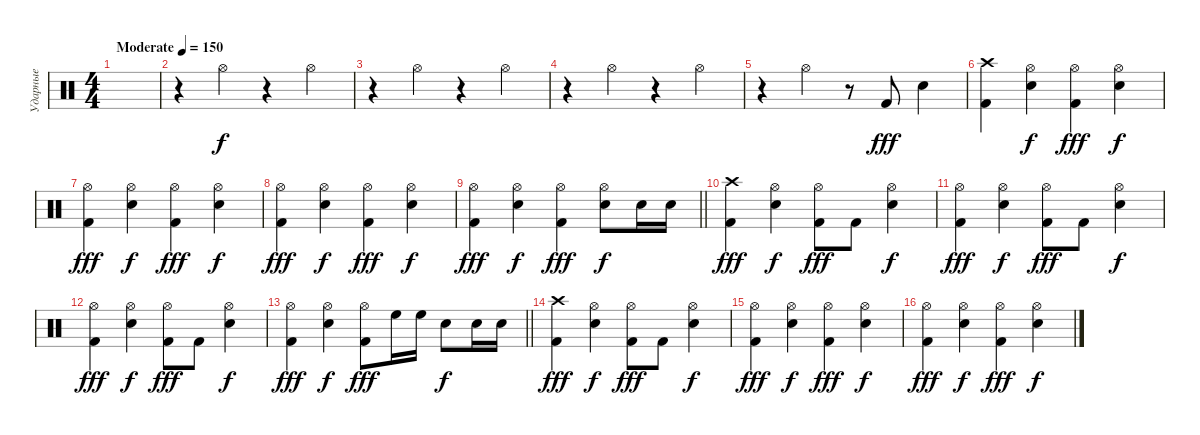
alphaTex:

\track ("Ударные" "Ударные") {instrument percussion}
\staff {score}
\articulation defaults
\ts (4 4)
\tempo (150 "Moderate")
\clef neutral
\ks c
|
r.4 "Hi-Hat (open)".4 r.4 "Hi-Hat (open)".4 |
r.4 "Hi-Hat (open)".4 r.4 "Hi-Hat (open)".4 |
r.4 "Hi-Hat (open)".4 r.4 "Hi-Hat (open)".4 |
r.4 "Hi-Hat (open)".4 r.8 "Kick (hit) 2".8{dy fff} "Snare (hit) 2".4 |
("Kick (hit) 2" "Crash high (hit)").4 ("Snare (hit) 2" "Hi-Hat (open)").4{dy f} ("Kick (hit) 2" "Hi-Hat (open)").4{dy fff} ("Snare (hit) 2" "Hi-Hat (open)").4{dy f} |
("Kick (hit) 2" "Hi-Hat (open)").4{dy fff} ("Snare (hit) 2" "Hi-Hat (open)").4{dy f} ("Kick (hit) 2" "Hi-Hat (open)").4{dy fff} ("Snare (hit) 2" "Hi-Hat (open)").4{dy f} |
("Kick (hit) 2" "Hi-Hat (open)").4{dy fff} ("Snare (hit) 2" "Hi-Hat (open)").4{dy f} ("Kick (hit) 2" "Hi-Hat (open)").4{dy fff} ("Snare (hit) 2" "Hi-Hat (open)").4{dy f} |
\barLineRight lightlight
("Kick (hit) 2" "Hi-Hat (open)").4{dy fff} ("Snare (hit) 2" "Hi-Hat (open)").4{dy f} ("Kick (hit) 2" "Hi-Hat (open)").4{dy fff} ("Snare (hit) 2" "Hi-Hat (open)").8{dy f} "Snare (hit) 2".16 "Snare (hit) 2".16 |
("Kick (hit) 2" "Crash high (hit)").4{dy fff} ("Snare (hit) 2" "Hi-Hat (open)").4{dy f} ("Kick (hit) 2" "Hi-Hat (open)").8{dy fff} "Kick (hit) 2".8 ("Snare (hit) 2" "Hi-Hat (open)").4{dy f} |
("Kick (hit) 2" "Hi-Hat (open)").4{dy fff} ("Snare (hit) 2" "Hi-Hat (open)").4{dy f} ("Kick (hit) 2" "Hi-Hat (open)").8{dy fff} "Kick (hit) 2".8 ("Snare (hit) 2" "Hi-Hat (open)").4{dy f} |
("Kick (hit) 2" "Hi-Hat (open)").4{dy fff} ("Snare (hit) 2" "Hi-Hat (open)").4{dy f} ("Kick (hit) 2" "Hi-Hat (open)").8{dy fff} "Kick (hit) 2".8 ("Snare (hit) 2" "Hi-Hat (open)").4{dy f} |
\barLineRight lightlight
("Kick (hit) 2" "Hi-Hat (open)").4{dy fff} ("Snare (hit) 2" "Hi-Hat (open)").4{dy f} ("Kick (hit) 2" "Hi-Hat (open)").8{dy fff} "High Floor Tom (hit)".16 "High Floor Tom (hit)".16 "Snare (hit) 2".8{dy f} "Snare (hit) 2".16 "Snare (hit) 2".16 |
("Kick (hit) 2" "Crash high (hit)").4{dy fff} ("Snare (hit) 2" "Hi-Hat (open)").4{dy f} ("Kick (hit) 2" "Hi-Hat (open)").8{dy fff} "Kick (hit) 2".8 ("Snare (hit) 2" "Hi-Hat (open)").4{dy f} |
("Kick (hit) 2" "Hi-Hat (open)").4{dy fff} ("Snare (hit) 2" "Hi-Hat (open)").4{dy f} ("Kick (hit) 2" "Hi-Hat (open)").4{dy fff} ("Snare (hit) 2" "Hi-Hat (open)").4{dy f} |
("Kick (hit) 2" "Hi-Hat (open)").4{dy fff} ("Snare (hit) 2" "Hi-Hat (open)").4{dy f} ("Kick (hit) 2" "Hi-Hat (open)").4{dy fff} ("Snare (hit) 2" "Hi-Hat (open)").4{dy f}
